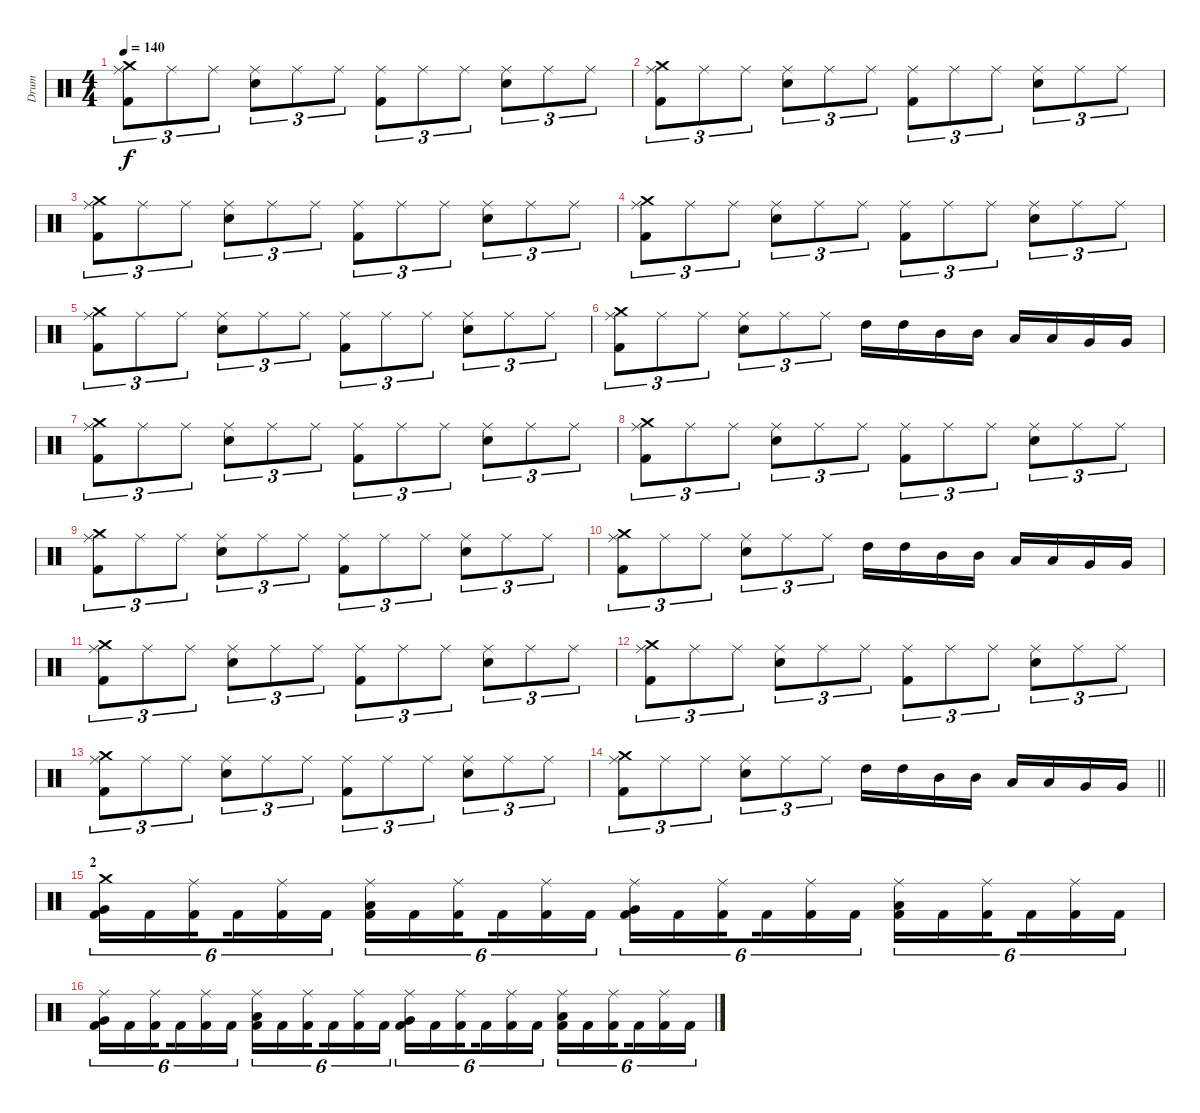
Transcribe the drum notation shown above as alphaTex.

\track ("Drum" "Drum") {instrument percussion}
\staff {score}
\articulation defaults
\ts (4 4)
\tempo 140
\clef neutral
\ks c
("Crash medium (hit)" "Ride (middle)" "Kick (hit) 2").8{tu (3 2) dy f} "Ride (middle)".8{tu (3 2)} "Ride (middle)".8{tu (3 2)} ("Ride (middle)" "Electric Snare (hit)").8{tu (3 2)} "Ride (middle)".8{tu (3 2)} "Ride (middle)".8{tu (3 2)} ("Ride (middle)" "Kick (hit) 2").8{tu (3 2)} "Ride (middle)".8{tu (3 2)} "Ride (middle)".8{tu (3 2)} ("Ride (middle)" "Electric Snare (hit)").8{tu (3 2)} "Ride (middle)".8{tu (3 2)} "Ride (middle)".8{tu (3 2)} |
("Crash medium (hit)" "Ride (middle)" "Kick (hit) 2").8{tu (3 2)} "Ride (middle)".8{tu (3 2)} "Ride (middle)".8{tu (3 2)} ("Ride (middle)" "Electric Snare (hit)").8{tu (3 2)} "Ride (middle)".8{tu (3 2)} "Ride (middle)".8{tu (3 2)} ("Ride (middle)" "Kick (hit) 2").8{tu (3 2)} "Ride (middle)".8{tu (3 2)} "Ride (middle)".8{tu (3 2)} ("Ride (middle)" "Electric Snare (hit)").8{tu (3 2)} "Ride (middle)".8{tu (3 2)} "Ride (middle)".8{tu (3 2)} |
("Crash medium (hit)" "Ride (middle)" "Kick (hit) 2").8{tu (3 2)} "Ride (middle)".8{tu (3 2)} "Ride (middle)".8{tu (3 2)} ("Ride (middle)" "Electric Snare (hit)").8{tu (3 2)} "Ride (middle)".8{tu (3 2)} "Ride (middle)".8{tu (3 2)} ("Ride (middle)" "Kick (hit) 2").8{tu (3 2)} "Ride (middle)".8{tu (3 2)} "Ride (middle)".8{tu (3 2)} ("Ride (middle)" "Electric Snare (hit)").8{tu (3 2)} "Ride (middle)".8{tu (3 2)} "Ride (middle)".8{tu (3 2)} |
("Crash medium (hit)" "Ride (middle)" "Kick (hit) 2").8{tu (3 2)} "Ride (middle)".8{tu (3 2)} "Ride (middle)".8{tu (3 2)} ("Ride (middle)" "Electric Snare (hit)").8{tu (3 2)} "Ride (middle)".8{tu (3 2)} "Ride (middle)".8{tu (3 2)} ("Ride (middle)" "Kick (hit) 2").8{tu (3 2)} "Ride (middle)".8{tu (3 2)} "Ride (middle)".8{tu (3 2)} ("Ride (middle)" "Electric Snare (hit)").8{tu (3 2)} "Ride (middle)".8{tu (3 2)} "Ride (middle)".8{tu (3 2)} |
("Crash medium (hit)" "Ride (middle)" "Kick (hit) 2").8{tu (3 2)} "Ride (middle)".8{tu (3 2)} "Ride (middle)".8{tu (3 2)} ("Ride (middle)" "Electric Snare (hit)").8{tu (3 2)} "Ride (middle)".8{tu (3 2)} "Ride (middle)".8{tu (3 2)} ("Ride (middle)" "Kick (hit) 2").8{tu (3 2)} "Ride (middle)".8{tu (3 2)} "Ride (middle)".8{tu (3 2)} ("Ride (middle)" "Electric Snare (hit)").8{tu (3 2)} "Ride (middle)".8{tu (3 2)} "Ride (middle)".8{tu (3 2)} |
("Crash medium (hit)" "Ride (middle)" "Kick (hit) 2").8{tu (3 2)} "Ride (middle)".8{tu (3 2)} "Ride (middle)".8{tu (3 2)} ("Ride (middle)" "Electric Snare (hit)").8{tu (3 2)} "Ride (middle)".8{tu (3 2)} "Ride (middle)".8{tu (3 2)} "High Tom (hit)".16 "High Tom (hit)".16 "Mid Tom (hit)".16 "Mid Tom (hit)".16 "Low Tom (hit)".16 "Low Tom (hit)".16 "Very Low Tom (hit)".16 "Very Low Tom (hit)".16 |
("Crash medium (hit)" "Ride (middle)" "Kick (hit) 2").8{tu (3 2)} "Ride (middle)".8{tu (3 2)} "Ride (middle)".8{tu (3 2)} ("Ride (middle)" "Electric Snare (hit)").8{tu (3 2)} "Ride (middle)".8{tu (3 2)} "Ride (middle)".8{tu (3 2)} ("Ride (middle)" "Kick (hit) 2").8{tu (3 2)} "Ride (middle)".8{tu (3 2)} "Ride (middle)".8{tu (3 2)} ("Ride (middle)" "Electric Snare (hit)").8{tu (3 2)} "Ride (middle)".8{tu (3 2)} "Ride (middle)".8{tu (3 2)} |
("Crash medium (hit)" "Ride (middle)" "Kick (hit) 2").8{tu (3 2)} "Ride (middle)".8{tu (3 2)} "Ride (middle)".8{tu (3 2)} ("Ride (middle)" "Electric Snare (hit)").8{tu (3 2)} "Ride (middle)".8{tu (3 2)} "Ride (middle)".8{tu (3 2)} ("Ride (middle)" "Kick (hit) 2").8{tu (3 2)} "Ride (middle)".8{tu (3 2)} "Ride (middle)".8{tu (3 2)} ("Ride (middle)" "Electric Snare (hit)").8{tu (3 2)} "Ride (middle)".8{tu (3 2)} "Ride (middle)".8{tu (3 2)} |
("Crash medium (hit)" "Ride (middle)" "Kick (hit) 2").8{tu (3 2)} "Ride (middle)".8{tu (3 2)} "Ride (middle)".8{tu (3 2)} ("Ride (middle)" "Electric Snare (hit)").8{tu (3 2)} "Ride (middle)".8{tu (3 2)} "Ride (middle)".8{tu (3 2)} ("Ride (middle)" "Kick (hit) 2").8{tu (3 2)} "Ride (middle)".8{tu (3 2)} "Ride (middle)".8{tu (3 2)} ("Ride (middle)" "Electric Snare (hit)").8{tu (3 2)} "Ride (middle)".8{tu (3 2)} "Ride (middle)".8{tu (3 2)} |
("Crash medium (hit)" "Ride (middle)" "Kick (hit) 2").8{tu (3 2)} "Ride (middle)".8{tu (3 2)} "Ride (middle)".8{tu (3 2)} ("Ride (middle)" "Electric Snare (hit)").8{tu (3 2)} "Ride (middle)".8{tu (3 2)} "Ride (middle)".8{tu (3 2)} "High Tom (hit)".16 "High Tom (hit)".16 "Mid Tom (hit)".16 "Mid Tom (hit)".16 "Low Tom (hit)".16 "Low Tom (hit)".16 "Very Low Tom (hit)".16 "Very Low Tom (hit)".16 |
("Crash medium (hit)" "Ride (middle)" "Kick (hit) 2").8{tu (3 2)} "Ride (middle)".8{tu (3 2)} "Ride (middle)".8{tu (3 2)} ("Ride (middle)" "Electric Snare (hit)").8{tu (3 2)} "Ride (middle)".8{tu (3 2)} "Ride (middle)".8{tu (3 2)} ("Ride (middle)" "Kick (hit) 2").8{tu (3 2)} "Ride (middle)".8{tu (3 2)} "Ride (middle)".8{tu (3 2)} ("Ride (middle)" "Electric Snare (hit)").8{tu (3 2)} "Ride (middle)".8{tu (3 2)} "Ride (middle)".8{tu (3 2)} |
("Crash medium (hit)" "Ride (middle)" "Kick (hit) 2").8{tu (3 2)} "Ride (middle)".8{tu (3 2)} "Ride (middle)".8{tu (3 2)} ("Ride (middle)" "Electric Snare (hit)").8{tu (3 2)} "Ride (middle)".8{tu (3 2)} "Ride (middle)".8{tu (3 2)} ("Ride (middle)" "Kick (hit) 2").8{tu (3 2)} "Ride (middle)".8{tu (3 2)} "Ride (middle)".8{tu (3 2)} ("Ride (middle)" "Electric Snare (hit)").8{tu (3 2)} "Ride (middle)".8{tu (3 2)} "Ride (middle)".8{tu (3 2)} |
("Crash medium (hit)" "Ride (middle)" "Kick (hit) 2").8{tu (3 2)} "Ride (middle)".8{tu (3 2)} "Ride (middle)".8{tu (3 2)} ("Ride (middle)" "Electric Snare (hit)").8{tu (3 2)} "Ride (middle)".8{tu (3 2)} "Ride (middle)".8{tu (3 2)} ("Ride (middle)" "Kick (hit) 2").8{tu (3 2)} "Ride (middle)".8{tu (3 2)} "Ride (middle)".8{tu (3 2)} ("Ride (middle)" "Electric Snare (hit)").8{tu (3 2)} "Ride (middle)".8{tu (3 2)} "Ride (middle)".8{tu (3 2)} |
\barLineRight lightlight
("Crash medium (hit)" "Ride (middle)" "Kick (hit) 2").8{tu (3 2)} "Ride (middle)".8{tu (3 2)} "Ride (middle)".8{tu (3 2)} ("Ride (middle)" "Electric Snare (hit)").8{tu (3 2)} "Ride (middle)".8{tu (3 2)} "Ride (middle)".8{tu (3 2)} "High Tom (hit)".16 "High Tom (hit)".16 "Mid Tom (hit)".16 "Mid Tom (hit)".16 "Low Tom (hit)".16 "Low Tom (hit)".16 "Very Low Tom (hit)".16 "Very Low Tom (hit)".16 |
\section ("" "2")
("Crash medium (hit)" "Very Low Tom (hit)" "Kick (hit) 2").16{tu (6 4)} "Kick (hit) 2".16{tu (6 4)} ("Ride (middle)" "Kick (hit) 2").16{tu (6 4) beam splitsecondary} "Kick (hit) 2".16{tu (6 4)} ("Ride (middle)" "Kick (hit) 2").16{tu (6 4)} "Kick (hit) 2".16{tu (6 4)} ("Ride (middle)" "Low Tom (hit)" "Kick (hit) 2").16{tu (6 4)} "Kick (hit) 2".16{tu (6 4)} ("Ride (middle)" "Kick (hit) 2").16{tu (6 4) beam splitsecondary} "Kick (hit) 2".16{tu (6 4)} ("Ride (middle)" "Kick (hit) 2").16{tu (6 4)} "Kick (hit) 2".16{tu (6 4)} ("Ride (middle)" "Very Low Tom (hit)" "Kick (hit) 2").16{tu (6 4)} "Kick (hit) 2".16{tu (6 4)} ("Ride (middle)" "Kick (hit) 2").16{tu (6 4) beam splitsecondary} "Kick (hit) 2".16{tu (6 4)} ("Ride (middle)" "Kick (hit) 2").16{tu (6 4)} "Kick (hit) 2".16{tu (6 4)} ("Ride (middle)" "Low Tom (hit)" "Kick (hit) 2").16{tu (6 4)} "Kick (hit) 2".16{tu (6 4)} ("Ride (middle)" "Kick (hit) 2").16{tu (6 4) beam splitsecondary} "Kick (hit) 2".16{tu (6 4)} ("Ride (middle)" "Kick (hit) 2").16{tu (6 4)} "Kick (hit) 2".16{tu (6 4)} |
("Ride (middle)" "Very Low Tom (hit)" "Kick (hit) 2").16{tu (6 4)} "Kick (hit) 2".16{tu (6 4)} ("Ride (middle)" "Kick (hit) 2").16{tu (6 4) beam splitsecondary} "Kick (hit) 2".16{tu (6 4)} ("Ride (middle)" "Kick (hit) 2").16{tu (6 4)} "Kick (hit) 2".16{tu (6 4)} ("Ride (middle)" "Low Tom (hit)" "Kick (hit) 2").16{tu (6 4)} "Kick (hit) 2".16{tu (6 4)} ("Ride (middle)" "Kick (hit) 2").16{tu (6 4) beam splitsecondary} "Kick (hit) 2".16{tu (6 4)} ("Ride (middle)" "Kick (hit) 2").16{tu (6 4)} "Kick (hit) 2".16{tu (6 4)} ("Ride (middle)" "Very Low Tom (hit)" "Kick (hit) 2").16{tu (6 4)} "Kick (hit) 2".16{tu (6 4)} ("Ride (middle)" "Kick (hit) 2").16{tu (6 4) beam splitsecondary} "Kick (hit) 2".16{tu (6 4)} ("Ride (middle)" "Kick (hit) 2").16{tu (6 4)} "Kick (hit) 2".16{tu (6 4)} ("Ride (middle)" "Low Tom (hit)" "Kick (hit) 2").16{tu (6 4)} "Kick (hit) 2".16{tu (6 4)} ("Ride (middle)" "Kick (hit) 2").16{tu (6 4) beam splitsecondary} "Kick (hit) 2".16{tu (6 4)} ("Ride (middle)" "Kick (hit) 2").16{tu (6 4)} "Kick (hit) 2".16{tu (6 4)}
